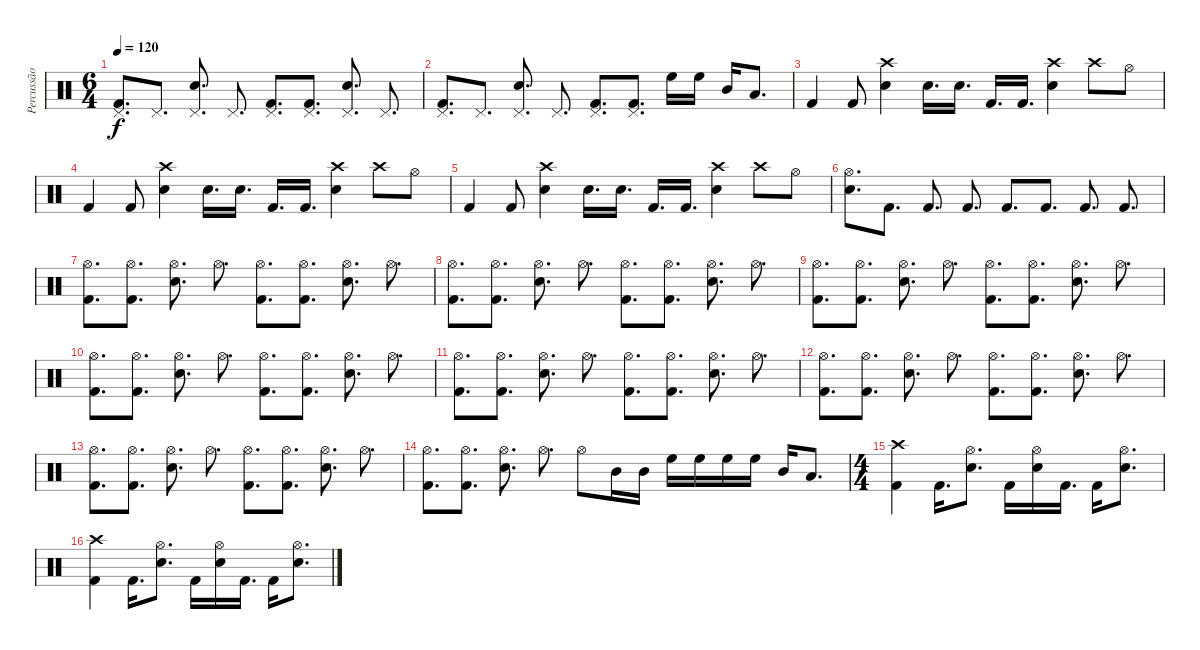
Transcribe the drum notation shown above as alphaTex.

\track ("Percussão" "Percussão") {solo instrument percussion}
\staff {score}
\articulation defaults
\ts (6 4)
\tempo 120
\clef neutral
\ks c
("Kick (hit) 2" "Pedal Hi-Hat (hit)").8{d dy f} "Pedal Hi-Hat (hit)".8{d} ("Snare (hit) 2" "Pedal Hi-Hat (hit)").8{d} "Pedal Hi-Hat (hit)".8{d} ("Kick (hit) 2" "Pedal Hi-Hat (hit)").8{d} ("Kick (hit) 2" "Pedal Hi-Hat (hit)").8{d} ("Snare (hit) 2" "Pedal Hi-Hat (hit)").8{d} "Pedal Hi-Hat (hit)".8{d} |
("Kick (hit) 2" "Pedal Hi-Hat (hit)").8{d} "Pedal Hi-Hat (hit)".8{d} ("Snare (hit) 2" "Pedal Hi-Hat (hit)").8{d} "Pedal Hi-Hat (hit)".8{d} ("Kick (hit) 2" "Pedal Hi-Hat (hit)").8{d} ("Kick (hit) 2" "Pedal Hi-Hat (hit)").8{d} "High Floor Tom (hit)".16 "High Floor Tom (hit)".16 "Mid Tom (hit)".16 "Low Tom (hit)".8{d} |
"Kick (hit) 2".4 "Kick (hit) 2".8 ("Snare (hit) 2" "Crash high (hit)").4 "Snare (hit) 2".16{d} "Snare (hit) 2".16{d} "Kick (hit) 2".16{d} "Kick (hit) 2".16{d} ("Snare (hit) 2" "Crash high (hit)").4 "Crash high (hit)".8 "Hi-Hat (open)".8 |
"Kick (hit) 2".4 "Kick (hit) 2".8 ("Snare (hit) 2" "Crash high (hit)").4 "Snare (hit) 2".16{d} "Snare (hit) 2".16{d} "Kick (hit) 2".16{d} "Kick (hit) 2".16{d} ("Snare (hit) 2" "Crash high (hit)").4 "Crash high (hit)".8 "Hi-Hat (open)".8 |
"Kick (hit) 2".4 "Kick (hit) 2".8 ("Snare (hit) 2" "Crash high (hit)").4 "Snare (hit) 2".16{d} "Snare (hit) 2".16{d} "Kick (hit) 2".16{d} "Kick (hit) 2".16{d} ("Snare (hit) 2" "Crash high (hit)").4 "Crash high (hit)".8 "Hi-Hat (open)".8 |
("Snare (hit) 2" "Hi-Hat (open)").8{d} "Kick (hit) 2".8{d} "Kick (hit) 2".8{d} "Kick (hit) 2".8{d} "Kick (hit) 2".8{d} "Kick (hit) 2".8{d} "Kick (hit) 2".8{d} "Kick (hit) 2".8{d} |
("Kick (hit) 2" "Hi-Hat (open)").8{d} ("Kick (hit) 2" "Hi-Hat (open)").8{d} ("Snare (hit) 2" "Hi-Hat (open)").8{d} "Hi-Hat (open)".8{d} ("Kick (hit) 2" "Hi-Hat (open)").8{d} ("Kick (hit) 2" "Hi-Hat (open)").8{d} ("Snare (hit) 2" "Hi-Hat (open)").8{d} "Hi-Hat (open)".8{d} |
("Kick (hit) 2" "Hi-Hat (open)").8{d} ("Kick (hit) 2" "Hi-Hat (open)").8{d} ("Snare (hit) 2" "Hi-Hat (open)").8{d} "Hi-Hat (open)".8{d} ("Kick (hit) 2" "Hi-Hat (open)").8{d} ("Kick (hit) 2" "Hi-Hat (open)").8{d} ("Snare (hit) 2" "Hi-Hat (open)").8{d} "Hi-Hat (open)".8{d} |
("Kick (hit) 2" "Hi-Hat (open)").8{d} ("Kick (hit) 2" "Hi-Hat (open)").8{d} ("Snare (hit) 2" "Hi-Hat (open)").8{d} "Hi-Hat (open)".8{d} ("Kick (hit) 2" "Hi-Hat (open)").8{d} ("Kick (hit) 2" "Hi-Hat (open)").8{d} ("Snare (hit) 2" "Hi-Hat (open)").8{d} "Hi-Hat (open)".8{d} |
("Kick (hit) 2" "Hi-Hat (open)").8{d} ("Kick (hit) 2" "Hi-Hat (open)").8{d} ("Snare (hit) 2" "Hi-Hat (open)").8{d} "Hi-Hat (open)".8{d} ("Kick (hit) 2" "Hi-Hat (open)").8{d} ("Kick (hit) 2" "Hi-Hat (open)").8{d} ("Snare (hit) 2" "Hi-Hat (open)").8{d} "Hi-Hat (open)".8{d} |
("Kick (hit) 2" "Hi-Hat (open)").8{d} ("Kick (hit) 2" "Hi-Hat (open)").8{d} ("Snare (hit) 2" "Hi-Hat (open)").8{d} "Hi-Hat (open)".8{d} ("Kick (hit) 2" "Hi-Hat (open)").8{d} ("Kick (hit) 2" "Hi-Hat (open)").8{d} ("Snare (hit) 2" "Hi-Hat (open)").8{d} "Hi-Hat (open)".8{d} |
("Kick (hit) 2" "Hi-Hat (open)").8{d} ("Kick (hit) 2" "Hi-Hat (open)").8{d} ("Snare (hit) 2" "Hi-Hat (open)").8{d} "Hi-Hat (open)".8{d} ("Kick (hit) 2" "Hi-Hat (open)").8{d} ("Kick (hit) 2" "Hi-Hat (open)").8{d} ("Snare (hit) 2" "Hi-Hat (open)").8{d} "Hi-Hat (open)".8{d} |
("Kick (hit) 2" "Hi-Hat (open)").8{d} ("Kick (hit) 2" "Hi-Hat (open)").8{d} ("Snare (hit) 2" "Hi-Hat (open)").8{d} "Hi-Hat (open)".8{d} ("Kick (hit) 2" "Hi-Hat (open)").8{d} ("Kick (hit) 2" "Hi-Hat (open)").8{d} ("Snare (hit) 2" "Hi-Hat (open)").8{d} "Hi-Hat (open)".8{d} |
("Kick (hit) 2" "Hi-Hat (open)").8{d} ("Kick (hit) 2" "Hi-Hat (open)").8{d} ("Snare (hit) 2" "Hi-Hat (open)").8{d} "Hi-Hat (open)".8{d} "Hi-Hat (open)".8 "Mid Tom (hit)".16 "Mid Tom (hit)".16 "High Floor Tom (hit)".16 "High Floor Tom (hit)".16 "High Floor Tom (hit)".16 "High Floor Tom (hit)".16 "Mid Tom (hit)".16 "Low Tom (hit)".8{d} |
\ts (4 4)
("Kick (hit) 2" "Crash high (hit)").4 "Kick (hit) 2".16{d} ("Snare (hit) 2" "Hi-Hat (open)").8{d} "Kick (hit) 2".16 ("Snare (hit) 2" "Hi-Hat (open)").16 "Kick (hit) 2".16{d} "Kick (hit) 2".16 ("Snare (hit) 2" "Hi-Hat (open)").8{d} |
("Kick (hit) 2" "Crash high (hit)").4 "Kick (hit) 2".16{d} ("Snare (hit) 2" "Hi-Hat (open)").8{d} "Kick (hit) 2".16 ("Snare (hit) 2" "Hi-Hat (open)").16 "Kick (hit) 2".16{d} "Kick (hit) 2".16 ("Snare (hit) 2" "Hi-Hat (open)").8{d}
